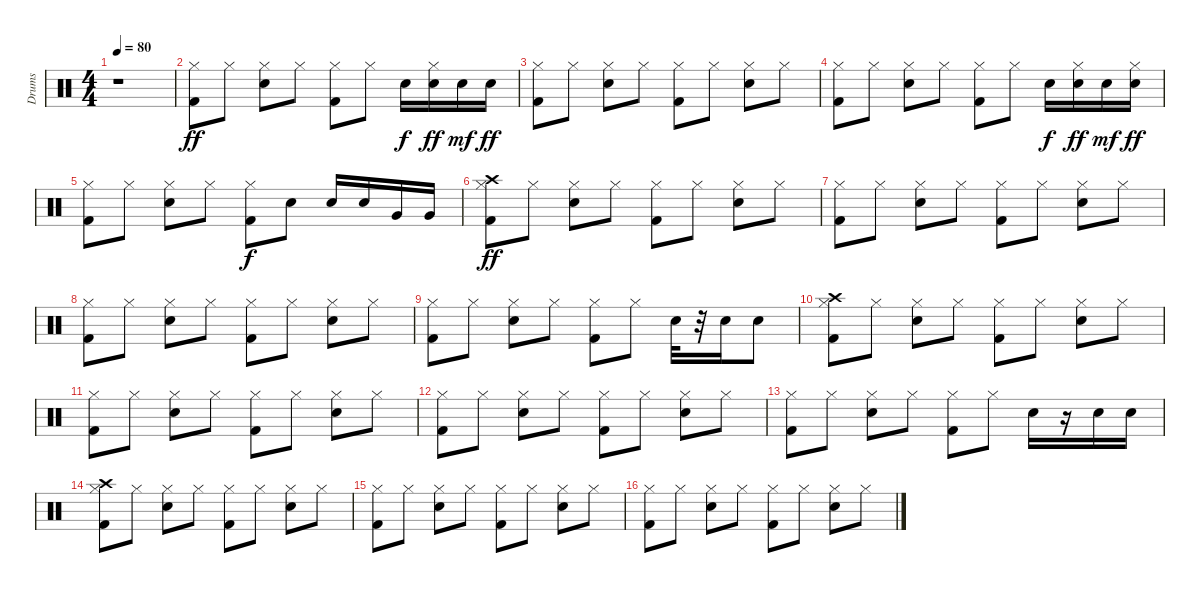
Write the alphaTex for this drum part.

\track ("Drums" "Drums") {instrument percussion}
\staff {score}
\articulation defaults
\ts (4 4)
\tempo 80
\clef neutral
\ks c
r.1{dy ff} |
("Kick (hit) 2" "Hi-Hat (closed)").8 "Hi-Hat (closed)".8 ("Snare (hit) 2" "Hi-Hat (closed)").8 "Hi-Hat (closed)".8 ("Kick (hit) 2" "Hi-Hat (closed)").8 "Hi-Hat (closed)".8 "Snare (hit) 2".16{dy f} ("Snare (hit) 2" "Hi-Hat (closed)").16{dy ff} "Snare (hit) 2".16{dy mf} "Snare (hit) 2".16{dy ff} |
("Kick (hit) 2" "Hi-Hat (closed)").8{volume 12 balance 8} "Hi-Hat (closed)".8 ("Snare (hit) 2" "Hi-Hat (closed)").8 "Hi-Hat (closed)".8 ("Kick (hit) 2" "Hi-Hat (closed)").8 "Hi-Hat (closed)".8 ("Snare (hit) 2" "Hi-Hat (closed)").8 "Hi-Hat (closed)".8 |
("Kick (hit) 2" "Hi-Hat (closed)").8{volume 12 balance 8} "Hi-Hat (closed)".8 ("Snare (hit) 2" "Hi-Hat (closed)").8 "Hi-Hat (closed)".8 ("Kick (hit) 2" "Hi-Hat (closed)").8 "Hi-Hat (closed)".8 "Snare (hit) 2".16{dy f} ("Snare (hit) 2" "Hi-Hat (closed)").16{dy ff} "Snare (hit) 2".16{dy mf} ("Snare (hit) 2" "Hi-Hat (closed)").16{dy ff} |
("Kick (hit) 2" "Hi-Hat (closed)").8{volume 12 balance 8} "Hi-Hat (closed)".8 ("Snare (hit) 2" "Hi-Hat (closed)").8 "Hi-Hat (closed)".8 ("Kick (hit) 2" "Hi-Hat (closed)").8{dy f} "Snare (hit) 2".8 "Snare (hit) 2".16 "Snare (hit) 2".16 "Very Low Tom (hit)".16 "Very Low Tom (hit)".16 |
("Kick (hit) 2" "Hi-Hat (closed)" "Crash high (hit)").8{dy ff volume 12 balance 8} "Hi-Hat (closed)".8 ("Snare (hit) 2" "Hi-Hat (closed)").8 "Hi-Hat (closed)".8 ("Kick (hit) 2" "Hi-Hat (closed)").8 "Hi-Hat (closed)".8 ("Snare (hit) 2" "Hi-Hat (closed)").8 "Hi-Hat (closed)".8 |
("Kick (hit) 2" "Hi-Hat (closed)").8{volume 12 balance 8} "Hi-Hat (closed)".8 ("Snare (hit) 2" "Hi-Hat (closed)").8 "Hi-Hat (closed)".8 ("Kick (hit) 2" "Hi-Hat (closed)").8 "Hi-Hat (closed)".8 ("Snare (hit) 2" "Hi-Hat (closed)").8 "Hi-Hat (closed)".8 |
("Kick (hit) 2" "Hi-Hat (closed)").8{volume 12 balance 8} "Hi-Hat (closed)".8 ("Snare (hit) 2" "Hi-Hat (closed)").8 "Hi-Hat (closed)".8 ("Kick (hit) 2" "Hi-Hat (closed)").8 "Hi-Hat (closed)".8 ("Snare (hit) 2" "Hi-Hat (closed)").8 "Hi-Hat (closed)".8 |
("Kick (hit) 2" "Hi-Hat (closed)").8{volume 12 balance 8} "Hi-Hat (closed)".8 ("Snare (hit) 2" "Hi-Hat (closed)").8 "Hi-Hat (closed)".8 ("Kick (hit) 2" "Hi-Hat (closed)").8 "Hi-Hat (closed)".8 "Snare (hit) 2".32 r.32 "Snare (hit) 2".16 "Snare (hit) 2".8 |
("Kick (hit) 2" "Hi-Hat (closed)" "Crash high (hit)").8{volume 12 balance 8} "Hi-Hat (closed)".8 ("Snare (hit) 2" "Hi-Hat (closed)").8 "Hi-Hat (closed)".8 ("Kick (hit) 2" "Hi-Hat (closed)").8 "Hi-Hat (closed)".8 ("Snare (hit) 2" "Hi-Hat (closed)").8 "Hi-Hat (closed)".8 |
("Kick (hit) 2" "Hi-Hat (closed)").8{volume 12 balance 8} "Hi-Hat (closed)".8 ("Snare (hit) 2" "Hi-Hat (closed)").8 "Hi-Hat (closed)".8 ("Kick (hit) 2" "Hi-Hat (closed)").8 "Hi-Hat (closed)".8 ("Snare (hit) 2" "Hi-Hat (closed)").8 "Hi-Hat (closed)".8 |
("Kick (hit) 2" "Hi-Hat (closed)").8{volume 12 balance 8} "Hi-Hat (closed)".8 ("Snare (hit) 2" "Hi-Hat (closed)").8 "Hi-Hat (closed)".8 ("Kick (hit) 2" "Hi-Hat (closed)").8 "Hi-Hat (closed)".8 ("Snare (hit) 2" "Hi-Hat (closed)").8 "Hi-Hat (closed)".8 |
("Kick (hit) 2" "Hi-Hat (closed)").8{volume 12 balance 8} "Hi-Hat (closed)".8 ("Snare (hit) 2" "Hi-Hat (closed)").8 "Hi-Hat (closed)".8 ("Kick (hit) 2" "Hi-Hat (closed)").8 "Hi-Hat (closed)".8 "Snare (hit) 2".16 r.16 "Snare (hit) 2".16 "Snare (hit) 2".16 |
("Kick (hit) 2" "Hi-Hat (closed)" "Crash high (hit)").8{volume 12 balance 8} "Hi-Hat (closed)".8 ("Snare (hit) 2" "Hi-Hat (closed)").8 "Hi-Hat (closed)".8 ("Kick (hit) 2" "Hi-Hat (closed)").8 "Hi-Hat (closed)".8 ("Snare (hit) 2" "Hi-Hat (closed)").8 "Hi-Hat (closed)".8 |
("Kick (hit) 2" "Hi-Hat (closed)").8{volume 12 balance 8} "Hi-Hat (closed)".8 ("Snare (hit) 2" "Hi-Hat (closed)").8 "Hi-Hat (closed)".8 ("Kick (hit) 2" "Hi-Hat (closed)").8 "Hi-Hat (closed)".8 ("Snare (hit) 2" "Hi-Hat (closed)").8 "Hi-Hat (closed)".8 |
("Kick (hit) 2" "Hi-Hat (closed)").8{volume 12 balance 8} "Hi-Hat (closed)".8 ("Snare (hit) 2" "Hi-Hat (closed)").8 "Hi-Hat (closed)".8 ("Kick (hit) 2" "Hi-Hat (closed)").8 "Hi-Hat (closed)".8 ("Snare (hit) 2" "Hi-Hat (closed)").8 "Hi-Hat (closed)".8
